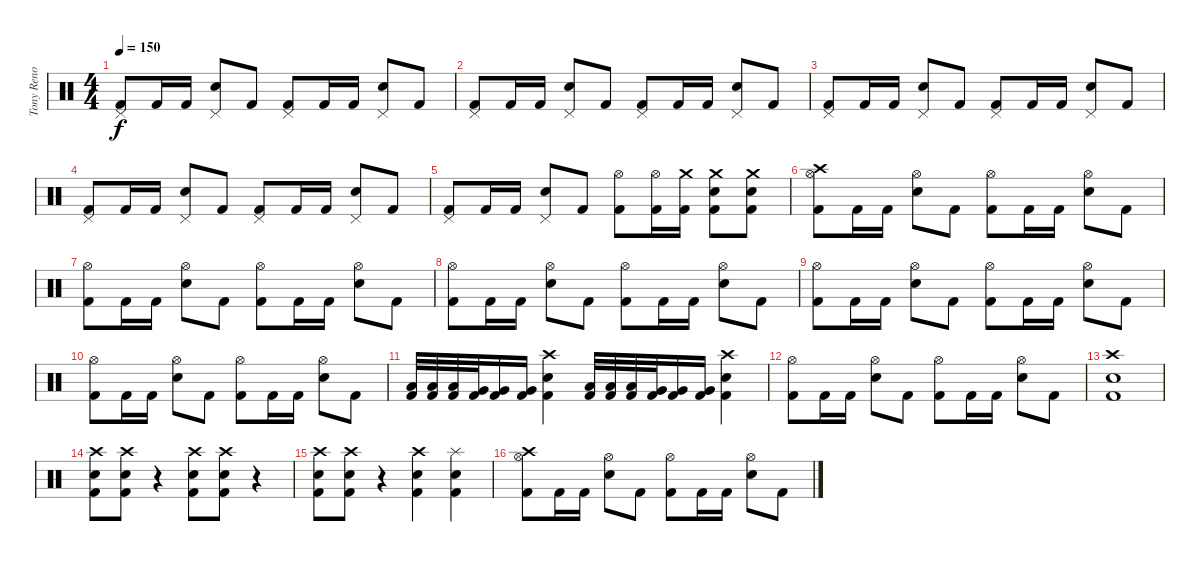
\track ("Tony Reno" "Tony Reno") {instrument percussion}
\staff {score}
\articulation defaults
\ts (4 4)
\tempo 150
\clef neutral
\ks c
("Kick (hit) 2" "Pedal Hi-Hat (hit)").8{dy f} "Kick (hit) 2".16 "Kick (hit) 2".16 ("Snare (hit) 2" "Pedal Hi-Hat (hit)").8 "Kick (hit) 2".8 ("Kick (hit) 2" "Pedal Hi-Hat (hit)").8 "Kick (hit) 2".16 "Kick (hit) 2".16 ("Snare (hit) 2" "Pedal Hi-Hat (hit)").8 "Kick (hit) 2".8 |
("Kick (hit) 2" "Pedal Hi-Hat (hit)").8 "Kick (hit) 2".16 "Kick (hit) 2".16 ("Snare (hit) 2" "Pedal Hi-Hat (hit)").8 "Kick (hit) 2".8 ("Kick (hit) 2" "Pedal Hi-Hat (hit)").8 "Kick (hit) 2".16 "Kick (hit) 2".16 ("Snare (hit) 2" "Pedal Hi-Hat (hit)").8 "Kick (hit) 2".8 |
("Kick (hit) 2" "Pedal Hi-Hat (hit)").8 "Kick (hit) 2".16 "Kick (hit) 2".16 ("Snare (hit) 2" "Pedal Hi-Hat (hit)").8 "Kick (hit) 2".8 ("Kick (hit) 2" "Pedal Hi-Hat (hit)").8 "Kick (hit) 2".16 "Kick (hit) 2".16 ("Snare (hit) 2" "Pedal Hi-Hat (hit)").8 "Kick (hit) 2".8 |
("Kick (hit) 2" "Pedal Hi-Hat (hit)").8 "Kick (hit) 2".16 "Kick (hit) 2".16 ("Snare (hit) 2" "Pedal Hi-Hat (hit)").8 "Kick (hit) 2".8 ("Kick (hit) 2" "Pedal Hi-Hat (hit)").8 "Kick (hit) 2".16 "Kick (hit) 2".16 ("Snare (hit) 2" "Pedal Hi-Hat (hit)").8 "Kick (hit) 2".8 |
("Kick (hit) 2" "Pedal Hi-Hat (hit)").8 "Kick (hit) 2".16 "Kick (hit) 2".16 ("Snare (hit) 2" "Pedal Hi-Hat (hit)").8 "Kick (hit) 2".8 ("Kick (hit) 2" "Hi-Hat (open)").8 ("Kick (hit) 2" "Hi-Hat (open)").16 ("Kick (hit) 2" "Crash medium (hit)").16 ("Kick (hit) 2" "Snare (hit) 2" "Crash medium (hit)").8 ("Kick (hit) 2" "Snare (hit) 2" "Crash medium (hit)").8 |
("Kick (hit) 2" "Hi-Hat (open)" "Crash high (hit)").8 "Kick (hit) 2".16 "Kick (hit) 2".16 ("Snare (hit) 2" "Hi-Hat (open)").8 "Kick (hit) 2".8 ("Kick (hit) 2" "Hi-Hat (open)").8 "Kick (hit) 2".16 "Kick (hit) 2".16 ("Snare (hit) 2" "Hi-Hat (open)").8 "Kick (hit) 2".8 |
("Kick (hit) 2" "Hi-Hat (open)").8 "Kick (hit) 2".16 "Kick (hit) 2".16 ("Snare (hit) 2" "Hi-Hat (open)").8 "Kick (hit) 2".8 ("Kick (hit) 2" "Hi-Hat (open)").8 "Kick (hit) 2".16 "Kick (hit) 2".16 ("Snare (hit) 2" "Hi-Hat (open)").8 "Kick (hit) 2".8 |
("Kick (hit) 2" "Hi-Hat (open)").8 "Kick (hit) 2".16 "Kick (hit) 2".16 ("Snare (hit) 2" "Hi-Hat (open)").8 "Kick (hit) 2".8 ("Kick (hit) 2" "Hi-Hat (open)").8 "Kick (hit) 2".16 "Kick (hit) 2".16 ("Snare (hit) 2" "Hi-Hat (open)").8 "Kick (hit) 2".8 |
("Kick (hit) 2" "Hi-Hat (open)").8 "Kick (hit) 2".16 "Kick (hit) 2".16 ("Snare (hit) 2" "Hi-Hat (open)").8 "Kick (hit) 2".8 ("Kick (hit) 2" "Hi-Hat (open)").8 "Kick (hit) 2".16 "Kick (hit) 2".16 ("Snare (hit) 2" "Hi-Hat (open)").8 "Kick (hit) 2".8 |
("Kick (hit) 2" "Hi-Hat (open)").8 "Kick (hit) 2".16 "Kick (hit) 2".16 ("Snare (hit) 2" "Hi-Hat (open)").8 "Kick (hit) 2".8 ("Kick (hit) 2" "Hi-Hat (open)").8 "Kick (hit) 2".16 "Kick (hit) 2".16 ("Snare (hit) 2" "Hi-Hat (open)").8 "Kick (hit) 2".8 |
("Kick (hit) 2" "Low Tom (hit)").32 ("Kick (hit) 2" "Low Tom (hit)").32 ("Kick (hit) 2" "Low Tom (hit)").32 ("Kick (hit) 2" "Very Low Tom (hit)").32 ("Kick (hit) 2" "Very Low Tom (hit)").16 ("Kick (hit) 2" "Very Low Tom (hit)").16 ("Snare (hit) 2" "Crash high (hit)" "Kick (hit) 2").4 ("Kick (hit) 2" "Low Tom (hit)").32 ("Kick (hit) 2" "Low Tom (hit)").32 ("Kick (hit) 2" "Low Tom (hit)").32 ("Kick (hit) 2" "Very Low Tom (hit)").32 ("Kick (hit) 2" "Very Low Tom (hit)").16 ("Kick (hit) 2" "Very Low Tom (hit)").16 ("Snare (hit) 2" "Crash high (hit)" "Kick (hit) 2").4 |
("Kick (hit) 2" "Hi-Hat (open)").8 "Kick (hit) 2".16 "Kick (hit) 2".16 ("Snare (hit) 2" "Hi-Hat (open)").8 "Kick (hit) 2".8 ("Kick (hit) 2" "Hi-Hat (open)").8 "Kick (hit) 2".16 "Kick (hit) 2".16 ("Snare (hit) 2" "Hi-Hat (open)").8 "Kick (hit) 2".8 |
("Kick (hit) 2" "Snare (hit) 2" "Crash high (hit)").1 |
("Kick (hit) 2" "Snare (hit) 2" "Crash high (hit)").8 ("Kick (hit) 2" "Snare (hit) 2" "Crash high (hit)").8 r.4 ("Kick (hit) 2" "Snare (hit) 2" "Crash high (hit)").8 ("Kick (hit) 2" "Snare (hit) 2" "Crash high (hit)").8 r.4 |
("Kick (hit) 2" "Snare (hit) 2" "Crash high (hit)").8 ("Kick (hit) 2" "Snare (hit) 2" "Crash high (hit)").8 r.4 ("Kick (hit) 2" "Snare (hit) 2" "Crash high (hit)").4 ("Kick (hit) 2" "Snare (hit) 2" "Splash (hit)").4 |
("Kick (hit) 2" "Hi-Hat (open)" "Crash high (hit)").8 "Kick (hit) 2".16 "Kick (hit) 2".16 ("Snare (hit) 2" "Hi-Hat (open)").8 "Kick (hit) 2".8 ("Kick (hit) 2" "Hi-Hat (open)").8 "Kick (hit) 2".16 "Kick (hit) 2".16 ("Snare (hit) 2" "Hi-Hat (open)").8 "Kick (hit) 2".8
